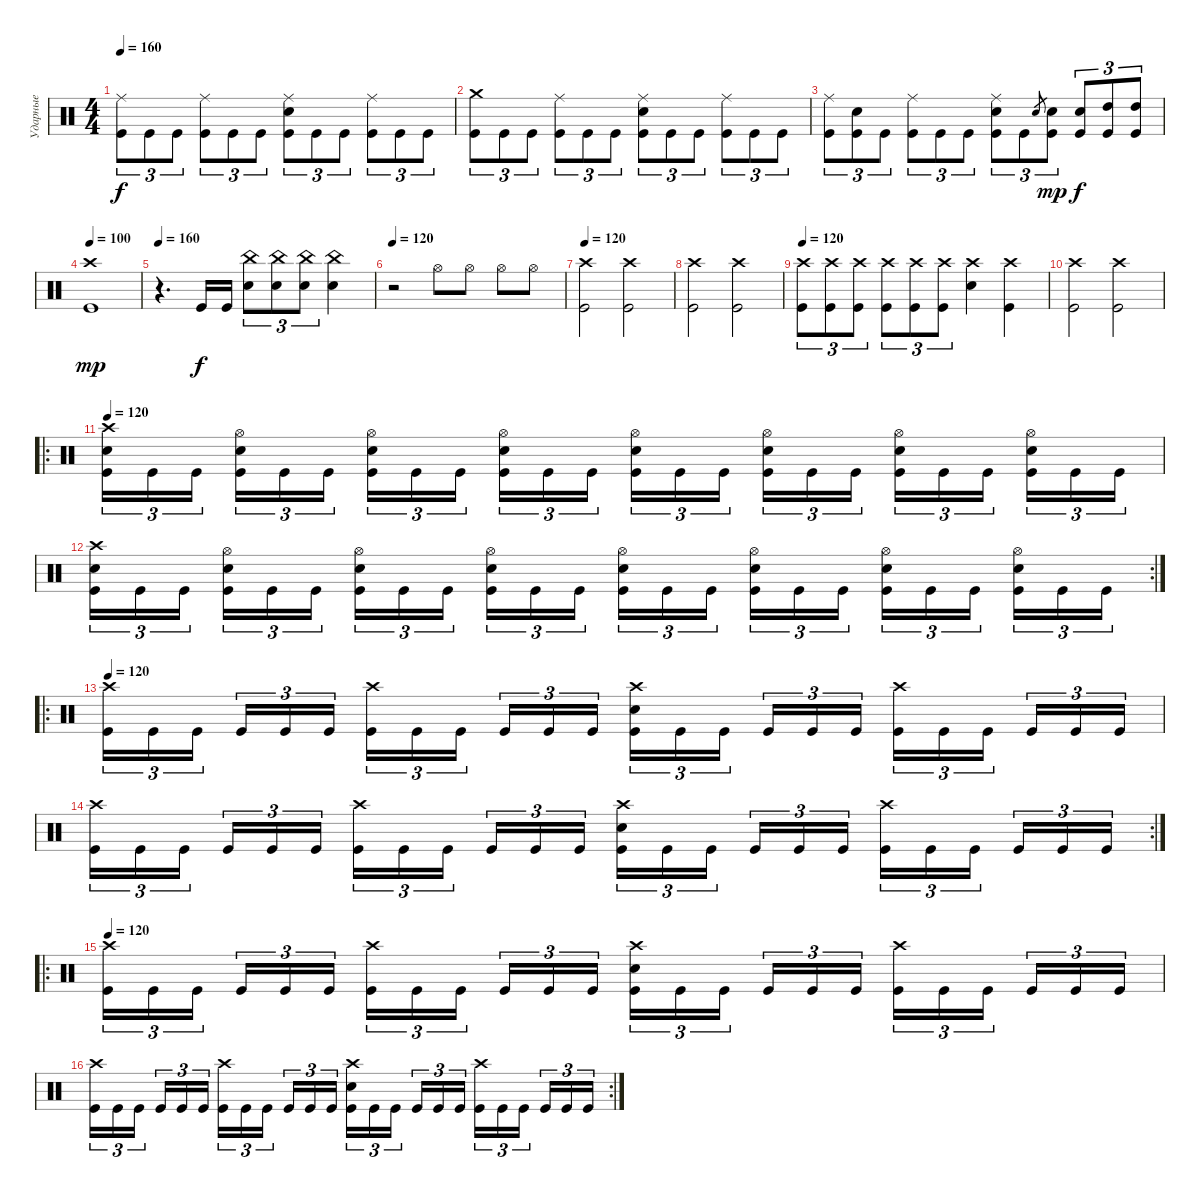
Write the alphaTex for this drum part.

\track ("Ударные" "Ударные") {instrument percussion}
\staff {score}
\articulation defaults
\ts (4 4)
\tempo 160
\clef neutral
\ks c
("Ride (middle)" "Kick (hit)").8{tu (3 2) dy f} "Kick (hit)".8{tu (3 2)} "Kick (hit)".8{tu (3 2)} ("Ride (middle)" "Kick (hit)").8{tu (3 2)} "Kick (hit)".8{tu (3 2)} "Kick (hit)".8{tu (3 2)} ("Snare (hit) 2" "Ride (middle)" "Kick (hit)").8{tu (3 2)} "Kick (hit)".8{tu (3 2)} "Kick (hit)".8{tu (3 2)} ("Ride (middle)" "Kick (hit)").8{tu (3 2)} "Kick (hit)".8{tu (3 2)} "Kick (hit)".8{tu (3 2)} |
("Crash medium (hit)" "Kick (hit)").8{tu (3 2)} "Kick (hit)".8{tu (3 2)} "Kick (hit)".8{tu (3 2)} ("Ride (middle)" "Kick (hit)").8{tu (3 2)} "Kick (hit)".8{tu (3 2)} "Kick (hit)".8{tu (3 2)} ("Snare (hit) 2" "Ride (middle)" "Kick (hit)").8{tu (3 2)} "Kick (hit)".8{tu (3 2)} "Kick (hit)".8{tu (3 2)} ("Ride (middle)" "Kick (hit)").8{tu (3 2)} "Kick (hit)".8{tu (3 2)} "Kick (hit)".8{tu (3 2)} |
("Ride (middle)" "Kick (hit)").8{tu (3 2)} ("Snare (hit) 2" "Kick (hit)").8{tu (3 2)} "Kick (hit)".8{tu (3 2)} ("Ride (middle)" "Kick (hit)").8{tu (3 2)} "Kick (hit)".8{tu (3 2)} "Kick (hit)".8{tu (3 2)} ("Snare (hit) 2" "Ride (middle)" "Kick (hit)").8{tu (3 2)} "Kick (hit)".8{tu (3 2)} "Snare (hit) 2"{sl}.8{gr} ("Snare (hit) 2" "Kick (hit)").8{tu (3 2) dy mp} ("Snare (hit) 2" "Kick (hit)").8{tu (3 2) dy f} ("High Tom (hit)" "Kick (hit)").8{tu (3 2)} ("High Tom (hit)" "Kick (hit)").8{tu (3 2)} |
\tempo 100
("Crash high (hit)" "Kick (hit)").1{dy mp} |
\tempo 160
r.4{d} "Kick (hit)".16{dy f} "Kick (hit)".16 ("China (hit)" "Snare (hit) 2").8{tu (3 2)} ("China (hit)" "Snare (hit) 2").8{tu (3 2)} ("China (hit)" "Snare (hit) 2").8{tu (3 2)} ("China (hit)" "Snare (hit) 2").4 |
\tempo 120
r.2 "Hi-Hat (open)".8 "Hi-Hat (open)".8 "Hi-Hat (open)".8 "Hi-Hat (open)".8 |
\tempo 120
("Crash high (hit)" "Kick (hit)").2 ("Kick (hit)" "Crash high (hit)").2 |
("Kick (hit)" "Crash high (hit)").2 ("Kick (hit)" "Crash high (hit)").2 |
\tempo 120
("Crash high (hit)" "Kick (hit)").8{tu (3 2)} ("Crash high (hit)" "Kick (hit)").8{tu (3 2)} ("Crash high (hit)" "Kick (hit)").8{tu (3 2)} ("Crash high (hit)" "Kick (hit)").8{tu (3 2)} ("Crash high (hit)" "Kick (hit)").8{tu (3 2)} ("Crash high (hit)" "Kick (hit)").8{tu (3 2)} ("Crash high (hit)" "Snare (hit) 2").4 ("Crash high (hit)" "Kick (hit)").4 |
("Crash high (hit)" "Kick (hit)").2 ("Crash high (hit)" "Kick (hit)").2 |
\ro
\tempo 120
("Crash high (hit)" "Snare (hit) 2" "Kick (hit)").16{tu (3 2)} "Kick (hit)".16{tu (3 2)} "Kick (hit)".16{tu (3 2) beam splitsecondary} ("Hi-Hat (open)" "Snare (hit) 2" "Kick (hit)").16{tu (3 2)} "Kick (hit)".16{tu (3 2)} "Kick (hit)".16{tu (3 2)} ("Hi-Hat (open)" "Snare (hit) 2" "Kick (hit)").16{tu (3 2)} "Kick (hit)".16{tu (3 2)} "Kick (hit)".16{tu (3 2) beam splitsecondary} ("Hi-Hat (open)" "Snare (hit) 2" "Kick (hit)").16{tu (3 2)} "Kick (hit)".16{tu (3 2)} "Kick (hit)".16{tu (3 2)} ("Hi-Hat (open)" "Snare (hit) 2" "Kick (hit)").16{tu (3 2)} "Kick (hit)".16{tu (3 2)} "Kick (hit)".16{tu (3 2) beam splitsecondary} ("Hi-Hat (open)" "Snare (hit) 2" "Kick (hit)").16{tu (3 2)} "Kick (hit)".16{tu (3 2)} "Kick (hit)".16{tu (3 2)} ("Hi-Hat (open)" "Snare (hit) 2" "Kick (hit)").16{tu (3 2)} "Kick (hit)".16{tu (3 2)} "Kick (hit)".16{tu (3 2) beam splitsecondary} ("Hi-Hat (open)" "Snare (hit) 2" "Kick (hit)").16{tu (3 2)} "Kick (hit)".16{tu (3 2)} "Kick (hit)".16{tu (3 2)} |
\rc 2
("Crash high (hit)" "Snare (hit) 2" "Kick (hit)").16{tu (3 2)} "Kick (hit)".16{tu (3 2)} "Kick (hit)".16{tu (3 2) beam splitsecondary} ("Hi-Hat (open)" "Snare (hit) 2" "Kick (hit)").16{tu (3 2)} "Kick (hit)".16{tu (3 2)} "Kick (hit)".16{tu (3 2)} ("Hi-Hat (open)" "Snare (hit) 2" "Kick (hit)").16{tu (3 2)} "Kick (hit)".16{tu (3 2)} "Kick (hit)".16{tu (3 2) beam splitsecondary} ("Hi-Hat (open)" "Snare (hit) 2" "Kick (hit)").16{tu (3 2)} "Kick (hit)".16{tu (3 2)} "Kick (hit)".16{tu (3 2)} ("Hi-Hat (open)" "Snare (hit) 2" "Kick (hit)").16{tu (3 2)} "Kick (hit)".16{tu (3 2)} "Kick (hit)".16{tu (3 2) beam splitsecondary} ("Hi-Hat (open)" "Snare (hit) 2" "Kick (hit)").16{tu (3 2)} "Kick (hit)".16{tu (3 2)} "Kick (hit)".16{tu (3 2)} ("Hi-Hat (open)" "Snare (hit) 2" "Kick (hit)").16{tu (3 2)} "Kick (hit)".16{tu (3 2)} "Kick (hit)".16{tu (3 2) beam splitsecondary} ("Hi-Hat (open)" "Snare (hit) 2" "Kick (hit)").16{tu (3 2)} "Kick (hit)".16{tu (3 2)} "Kick (hit)".16{tu (3 2)} |
\ro
\tempo 120
("Crash high (hit)" "Kick (hit)").16{tu (3 2)} "Kick (hit)".16{tu (3 2)} "Kick (hit)".16{tu (3 2) beam splitsecondary} "Kick (hit)".16{tu (3 2)} "Kick (hit)".16{tu (3 2)} "Kick (hit)".16{tu (3 2)} ("Crash high (hit)" "Kick (hit)").16{tu (3 2)} "Kick (hit)".16{tu (3 2)} "Kick (hit)".16{tu (3 2) beam splitsecondary} "Kick (hit)".16{tu (3 2)} "Kick (hit)".16{tu (3 2)} "Kick (hit)".16{tu (3 2)} ("Crash high (hit)" "Snare (hit) 2" "Kick (hit)").16{tu (3 2)} "Kick (hit)".16{tu (3 2)} "Kick (hit)".16{tu (3 2) beam splitsecondary} "Kick (hit)".16{tu (3 2)} "Kick (hit)".16{tu (3 2)} "Kick (hit)".16{tu (3 2)} ("Crash high (hit)" "Kick (hit)").16{tu (3 2)} "Kick (hit)".16{tu (3 2)} "Kick (hit)".16{tu (3 2) beam splitsecondary} "Kick (hit)".16{tu (3 2)} "Kick (hit)".16{tu (3 2)} "Kick (hit)".16{tu (3 2)} |
\rc 2
("Crash high (hit)" "Kick (hit)").16{tu (3 2)} "Kick (hit)".16{tu (3 2)} "Kick (hit)".16{tu (3 2) beam splitsecondary} "Kick (hit)".16{tu (3 2)} "Kick (hit)".16{tu (3 2)} "Kick (hit)".16{tu (3 2)} ("Crash high (hit)" "Kick (hit)").16{tu (3 2)} "Kick (hit)".16{tu (3 2)} "Kick (hit)".16{tu (3 2) beam splitsecondary} "Kick (hit)".16{tu (3 2)} "Kick (hit)".16{tu (3 2)} "Kick (hit)".16{tu (3 2)} ("Crash high (hit)" "Snare (hit) 2" "Kick (hit)").16{tu (3 2)} "Kick (hit)".16{tu (3 2)} "Kick (hit)".16{tu (3 2) beam splitsecondary} "Kick (hit)".16{tu (3 2)} "Kick (hit)".16{tu (3 2)} "Kick (hit)".16{tu (3 2)} ("Crash high (hit)" "Kick (hit)").16{tu (3 2)} "Kick (hit)".16{tu (3 2)} "Kick (hit)".16{tu (3 2) beam splitsecondary} "Kick (hit)".16{tu (3 2)} "Kick (hit)".16{tu (3 2)} "Kick (hit)".16{tu (3 2)} |
\ro
\tempo 120
("Crash high (hit)" "Kick (hit)").16{tu (3 2)} "Kick (hit)".16{tu (3 2)} "Kick (hit)".16{tu (3 2) beam splitsecondary} "Kick (hit)".16{tu (3 2)} "Kick (hit)".16{tu (3 2)} "Kick (hit)".16{tu (3 2)} ("Crash high (hit)" "Kick (hit)").16{tu (3 2)} "Kick (hit)".16{tu (3 2)} "Kick (hit)".16{tu (3 2) beam splitsecondary} "Kick (hit)".16{tu (3 2)} "Kick (hit)".16{tu (3 2)} "Kick (hit)".16{tu (3 2)} ("Crash high (hit)" "Snare (hit) 2" "Kick (hit)").16{tu (3 2)} "Kick (hit)".16{tu (3 2)} "Kick (hit)".16{tu (3 2) beam splitsecondary} "Kick (hit)".16{tu (3 2)} "Kick (hit)".16{tu (3 2)} "Kick (hit)".16{tu (3 2)} ("Crash high (hit)" "Kick (hit)").16{tu (3 2)} "Kick (hit)".16{tu (3 2)} "Kick (hit)".16{tu (3 2) beam splitsecondary} "Kick (hit)".16{tu (3 2)} "Kick (hit)".16{tu (3 2)} "Kick (hit)".16{tu (3 2)} |
\rc 2
("Crash high (hit)" "Kick (hit)").16{tu (3 2)} "Kick (hit)".16{tu (3 2)} "Kick (hit)".16{tu (3 2) beam splitsecondary} "Kick (hit)".16{tu (3 2)} "Kick (hit)".16{tu (3 2)} "Kick (hit)".16{tu (3 2)} ("Crash high (hit)" "Kick (hit)").16{tu (3 2)} "Kick (hit)".16{tu (3 2)} "Kick (hit)".16{tu (3 2) beam splitsecondary} "Kick (hit)".16{tu (3 2)} "Kick (hit)".16{tu (3 2)} "Kick (hit)".16{tu (3 2)} ("Crash high (hit)" "Snare (hit) 2" "Kick (hit)").16{tu (3 2)} "Kick (hit)".16{tu (3 2)} "Kick (hit)".16{tu (3 2) beam splitsecondary} "Kick (hit)".16{tu (3 2)} "Kick (hit)".16{tu (3 2)} "Kick (hit)".16{tu (3 2)} ("Crash high (hit)" "Kick (hit)").16{tu (3 2)} "Kick (hit)".16{tu (3 2)} "Kick (hit)".16{tu (3 2) beam splitsecondary} "Kick (hit)".16{tu (3 2)} "Kick (hit)".16{tu (3 2)} "Kick (hit)".16{tu (3 2)}
